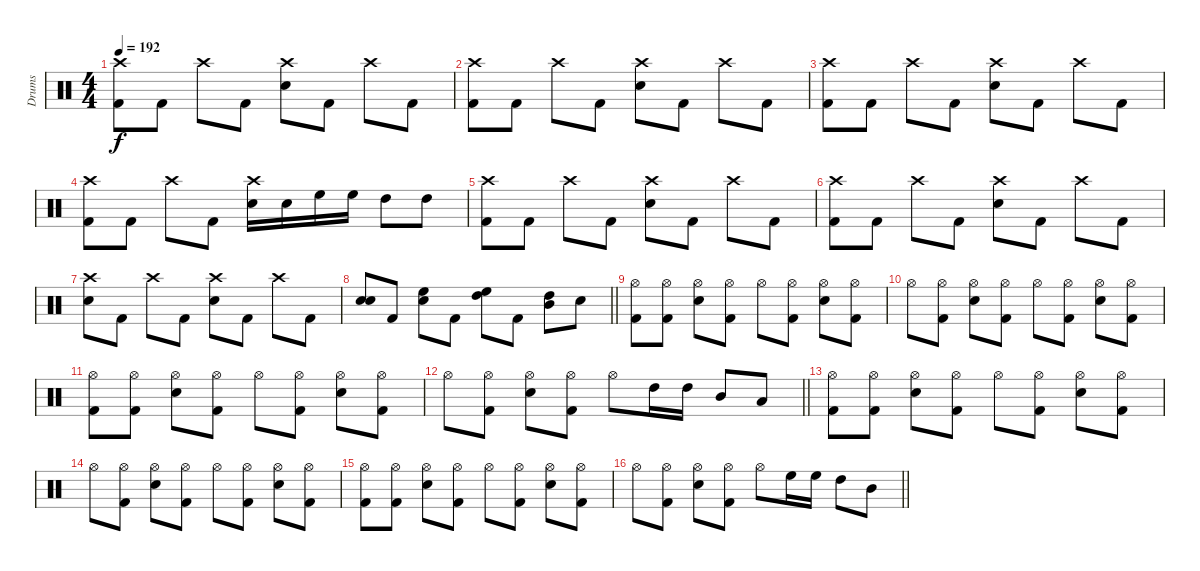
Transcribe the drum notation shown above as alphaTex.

\track ("Drums" "Drums") {instrument percussion}
\staff {score}
\articulation defaults
\ts (4 4)
\tempo 192
\clef neutral
\ks c
("Crash high (hit)" "Kick (hit) 2").8{dy f} "Kick (hit) 2".8 "Crash high (hit)".8 "Kick (hit) 2".8 ("Crash high (hit)" "Electric Snare (hit)").8 "Kick (hit) 2".8 "Crash high (hit)".8 "Kick (hit) 2".8 |
("Crash high (hit)" "Kick (hit) 2").8 "Kick (hit) 2".8 "Crash high (hit)".8 "Kick (hit) 2".8 ("Crash high (hit)" "Electric Snare (hit)").8 "Kick (hit) 2".8 "Crash high (hit)".8 "Kick (hit) 2".8 |
("Crash high (hit)" "Kick (hit) 2").8 "Kick (hit) 2".8 "Crash high (hit)".8 "Kick (hit) 2".8 ("Crash high (hit)" "Electric Snare (hit)").8 "Kick (hit) 2".8 "Crash high (hit)".8 "Kick (hit) 2".8 |
("Crash high (hit)" "Kick (hit) 2").8 "Kick (hit) 2".8 "Crash high (hit)".8 "Kick (hit) 2".8 ("Crash high (hit)" "Electric Snare (hit)").16 "Electric Snare (hit)".16 "High Floor Tom (hit)".16 "High Floor Tom (hit)".16 "High Tom (hit)".8 "High Tom (hit)".8 |
("Crash high (hit)" "Kick (hit) 2").8 "Kick (hit) 2".8 "Crash high (hit)".8 "Kick (hit) 2".8 ("Crash high (hit)" "Electric Snare (hit)").8 "Kick (hit) 2".8 "Crash high (hit)".8 "Kick (hit) 2".8 |
("Crash high (hit)" "Kick (hit) 2").8 "Kick (hit) 2".8 "Crash high (hit)".8 "Kick (hit) 2".8 ("Crash high (hit)" "Electric Snare (hit)").8 "Kick (hit) 2".8 "Crash high (hit)".8 "Kick (hit) 2".8 |
("Crash high (hit)" "Electric Snare (hit)").8 "Kick (hit) 2".8 "Crash high (hit)".8 "Kick (hit) 2".8 ("Crash high (hit)" "Electric Snare (hit)").8 "Kick (hit) 2".8 "Crash high (hit)".8 "Kick (hit) 2".8 |
\barLineRight lightlight
("Electric Snare (hit)" "Electric Snare (hit)").8 "Kick (hit) 2".8 ("Electric Snare (hit)" "High Floor Tom (hit)").8 "Kick (hit) 2".8 ("High Floor Tom (hit)" "High Tom (hit)").8 "Kick (hit) 2".8 ("High Tom (hit)" "Mid Tom (hit)").8 "Electric Snare (hit)".8 |
\section ("" "")
("Hi-Hat (open)" "Kick (hit) 2").8 ("Hi-Hat (open)" "Kick (hit) 2").8 ("Hi-Hat (open)" "Electric Snare (hit)").8 ("Hi-Hat (open)" "Kick (hit) 2").8 "Hi-Hat (open)".8 ("Hi-Hat (open)" "Kick (hit) 2").8 ("Hi-Hat (open)" "Electric Snare (hit)").8 ("Hi-Hat (open)" "Kick (hit) 2").8 |
"Hi-Hat (open)".8 ("Hi-Hat (open)" "Kick (hit) 2").8 ("Hi-Hat (open)" "Electric Snare (hit)").8 ("Hi-Hat (open)" "Kick (hit) 2").8 "Hi-Hat (open)".8 ("Hi-Hat (open)" "Kick (hit) 2").8 ("Hi-Hat (open)" "Electric Snare (hit)").8 ("Hi-Hat (open)" "Kick (hit) 2").8 |
("Hi-Hat (open)" "Kick (hit) 2").8 ("Hi-Hat (open)" "Kick (hit) 2").8 ("Hi-Hat (open)" "Electric Snare (hit)").8 ("Hi-Hat (open)" "Kick (hit) 2").8 "Hi-Hat (open)".8 ("Hi-Hat (open)" "Kick (hit) 2").8 ("Hi-Hat (open)" "Electric Snare (hit)").8 ("Hi-Hat (open)" "Kick (hit) 2").8 |
\barLineRight lightlight "Hi-Hat (open)".8
("Hi-Hat (open)" "Kick (hit) 2").8 ("Hi-Hat (open)" "Electric Snare (hit)").8 ("Hi-Hat (open)" "Kick (hit) 2").8 "Hi-Hat (open)".8 "High Tom (hit)".16 "High Tom (hit)".16 "Mid Tom (hit)".8 "Low Tom (hit)".8 |
("Hi-Hat (open)" "Kick (hit) 2").8 ("Hi-Hat (open)" "Kick (hit) 2").8 ("Hi-Hat (open)" "Electric Snare (hit)").8 ("Hi-Hat (open)" "Kick (hit) 2").8 "Hi-Hat (open)".8 ("Hi-Hat (open)" "Kick (hit) 2").8 ("Hi-Hat (open)" "Electric Snare (hit)").8 ("Hi-Hat (open)" "Kick (hit) 2").8 |
"Hi-Hat (open)".8 ("Hi-Hat (open)" "Kick (hit) 2").8 ("Hi-Hat (open)" "Electric Snare (hit)").8 ("Hi-Hat (open)" "Kick (hit) 2").8 "Hi-Hat (open)".8 ("Hi-Hat (open)" "Kick (hit) 2").8 ("Hi-Hat (open)" "Electric Snare (hit)").8 ("Hi-Hat (open)" "Kick (hit) 2").8 |
("Hi-Hat (open)" "Kick (hit) 2").8 ("Hi-Hat (open)" "Kick (hit) 2").8 ("Hi-Hat (open)" "Electric Snare (hit)").8 ("Hi-Hat (open)" "Kick (hit) 2").8 "Hi-Hat (open)".8 ("Hi-Hat (open)" "Kick (hit) 2").8 ("Hi-Hat (open)" "Electric Snare (hit)").8 ("Hi-Hat (open)" "Kick (hit) 2").8 |
\barLineRight lightlight "Hi-Hat (open)".8
("Hi-Hat (open)" "Kick (hit) 2").8 ("Hi-Hat (open)" "Electric Snare (hit)").8 ("Hi-Hat (open)" "Kick (hit) 2").8 "Hi-Hat (open)".8 "High Floor Tom (hit)".16 "High Floor Tom (hit)".16 "High Tom (hit)".8 "Mid Tom (hit)".8
